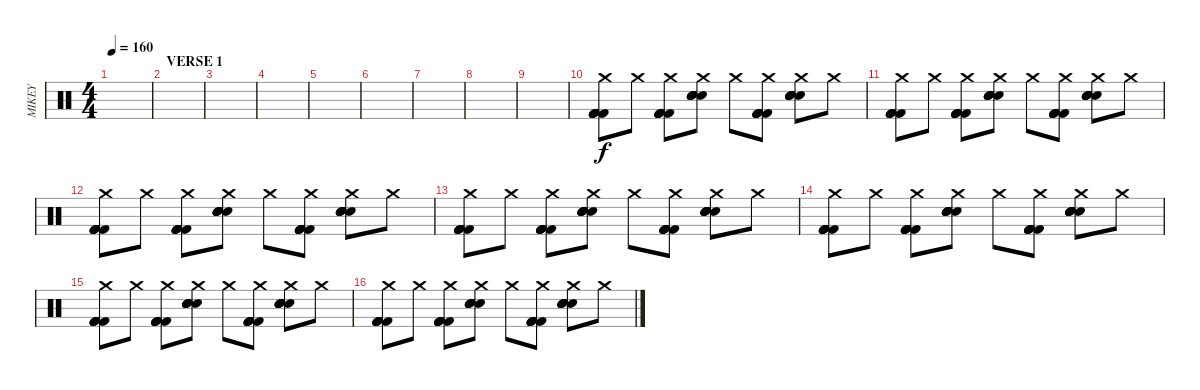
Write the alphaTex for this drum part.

\track ("MIKEY" "MIKEY") {instrument percussion}
\staff {score}
\articulation defaults
\ts (4 4)
\tempo 160
\clef neutral
\ks c
|
\section ("" "VERSE 1")
|
|
|
|
|
|
|
|
("Kick (hit) 2" "Kick (hit) 2" "Kick (hit) 2" "Kick (hit) 2" "Kick (hit) 2" "Crash medium (hit)").8 "Crash medium (hit)".8 ("Kick (hit) 2" "Kick (hit) 2" "Kick (hit) 2" "Kick (hit) 2" "Kick (hit) 2" "Crash medium (hit)").8 ("Snare (hit) 2" "Snare (hit) 2" "Snare (hit) 2" "Snare (hit) 2" "Snare (hit) 2" "Crash medium (hit)").8 "Crash medium (hit)".8 ("Kick (hit) 2" "Kick (hit) 2" "Kick (hit) 2" "Kick (hit) 2" "Kick (hit) 2" "Crash medium (hit)").8 ("Snare (hit) 2" "Snare (hit) 2" "Snare (hit) 2" "Snare (hit) 2" "Snare (hit) 2" "Crash medium (hit)").8 "Crash medium (hit)".8 |
("Kick (hit) 2" "Kick (hit) 2" "Kick (hit) 2" "Kick (hit) 2" "Kick (hit) 2" "Crash medium (hit)").8 "Crash medium (hit)".8 ("Kick (hit) 2" "Kick (hit) 2" "Kick (hit) 2" "Kick (hit) 2" "Kick (hit) 2" "Crash medium (hit)").8 ("Snare (hit) 2" "Snare (hit) 2" "Snare (hit) 2" "Snare (hit) 2" "Snare (hit) 2" "Crash medium (hit)").8 "Crash medium (hit)".8 ("Kick (hit) 2" "Kick (hit) 2" "Kick (hit) 2" "Kick (hit) 2" "Kick (hit) 2" "Crash medium (hit)").8 ("Snare (hit) 2" "Snare (hit) 2" "Snare (hit) 2" "Snare (hit) 2" "Snare (hit) 2" "Crash medium (hit)").8 "Crash medium (hit)".8 |
("Kick (hit) 2" "Kick (hit) 2" "Kick (hit) 2" "Kick (hit) 2" "Kick (hit) 2" "Crash medium (hit)").8 "Crash medium (hit)".8 ("Kick (hit) 2" "Kick (hit) 2" "Kick (hit) 2" "Kick (hit) 2" "Kick (hit) 2" "Crash medium (hit)").8 ("Snare (hit) 2" "Snare (hit) 2" "Snare (hit) 2" "Snare (hit) 2" "Snare (hit) 2" "Crash medium (hit)").8 "Crash medium (hit)".8 ("Kick (hit) 2" "Kick (hit) 2" "Kick (hit) 2" "Kick (hit) 2" "Kick (hit) 2" "Crash medium (hit)").8 ("Snare (hit) 2" "Snare (hit) 2" "Snare (hit) 2" "Snare (hit) 2" "Snare (hit) 2" "Crash medium (hit)").8 "Crash medium (hit)".8 |
("Kick (hit) 2" "Kick (hit) 2" "Kick (hit) 2" "Kick (hit) 2" "Kick (hit) 2" "Crash medium (hit)").8 "Crash medium (hit)".8 ("Kick (hit) 2" "Kick (hit) 2" "Kick (hit) 2" "Kick (hit) 2" "Kick (hit) 2" "Crash medium (hit)").8 ("Snare (hit) 2" "Snare (hit) 2" "Snare (hit) 2" "Snare (hit) 2" "Snare (hit) 2" "Crash medium (hit)").8 "Crash medium (hit)".8 ("Kick (hit) 2" "Kick (hit) 2" "Kick (hit) 2" "Kick (hit) 2" "Kick (hit) 2" "Crash medium (hit)").8 ("Snare (hit) 2" "Snare (hit) 2" "Snare (hit) 2" "Snare (hit) 2" "Snare (hit) 2" "Crash medium (hit)").8 "Crash medium (hit)".8 |
("Kick (hit) 2" "Kick (hit) 2" "Kick (hit) 2" "Kick (hit) 2" "Kick (hit) 2" "Crash medium (hit)").8 "Crash medium (hit)".8 ("Kick (hit) 2" "Kick (hit) 2" "Kick (hit) 2" "Kick (hit) 2" "Kick (hit) 2" "Crash medium (hit)").8 ("Snare (hit) 2" "Snare (hit) 2" "Snare (hit) 2" "Snare (hit) 2" "Snare (hit) 2" "Crash medium (hit)").8 "Crash medium (hit)".8 ("Kick (hit) 2" "Kick (hit) 2" "Kick (hit) 2" "Kick (hit) 2" "Kick (hit) 2" "Crash medium (hit)").8 ("Snare (hit) 2" "Snare (hit) 2" "Snare (hit) 2" "Snare (hit) 2" "Snare (hit) 2" "Crash medium (hit)").8 "Crash medium (hit)".8 |
("Kick (hit) 2" "Kick (hit) 2" "Kick (hit) 2" "Kick (hit) 2" "Kick (hit) 2" "Crash medium (hit)").8 "Crash medium (hit)".8 ("Kick (hit) 2" "Kick (hit) 2" "Kick (hit) 2" "Kick (hit) 2" "Kick (hit) 2" "Crash medium (hit)").8 ("Snare (hit) 2" "Snare (hit) 2" "Snare (hit) 2" "Snare (hit) 2" "Snare (hit) 2" "Crash medium (hit)").8 "Crash medium (hit)".8 ("Kick (hit) 2" "Kick (hit) 2" "Kick (hit) 2" "Kick (hit) 2" "Kick (hit) 2" "Crash medium (hit)").8 ("Snare (hit) 2" "Snare (hit) 2" "Snare (hit) 2" "Snare (hit) 2" "Snare (hit) 2" "Crash medium (hit)").8 "Crash medium (hit)".8 |
("Kick (hit) 2" "Kick (hit) 2" "Kick (hit) 2" "Kick (hit) 2" "Kick (hit) 2" "Crash medium (hit)").8 "Crash medium (hit)".8 ("Kick (hit) 2" "Kick (hit) 2" "Kick (hit) 2" "Kick (hit) 2" "Kick (hit) 2" "Crash medium (hit)").8 ("Snare (hit) 2" "Snare (hit) 2" "Snare (hit) 2" "Snare (hit) 2" "Snare (hit) 2" "Crash medium (hit)").8 "Crash medium (hit)".8 ("Kick (hit) 2" "Kick (hit) 2" "Kick (hit) 2" "Kick (hit) 2" "Kick (hit) 2" "Crash medium (hit)").8 ("Snare (hit) 2" "Snare (hit) 2" "Snare (hit) 2" "Snare (hit) 2" "Snare (hit) 2" "Crash medium (hit)").8 "Crash medium (hit)".8
